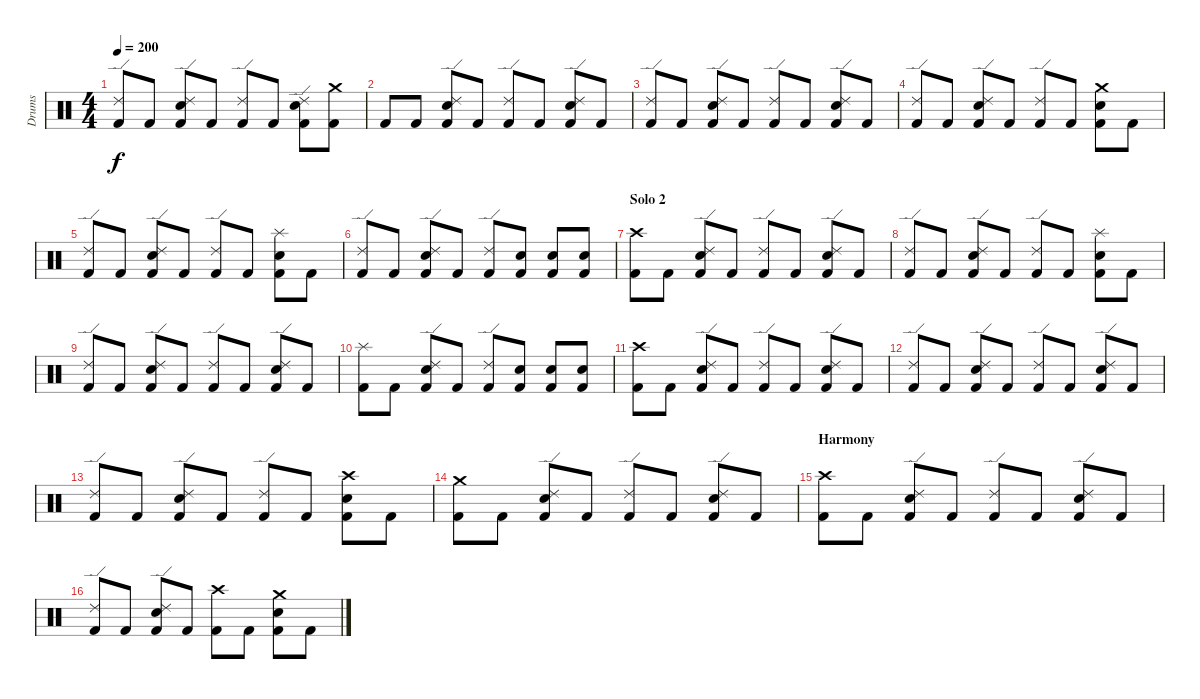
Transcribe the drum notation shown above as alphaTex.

\track ("Drums" "Drums") {instrument percussion}
\staff {score}
\articulation defaults
\ts (4 4)
\tempo 200
\clef neutral
\ks c
("Kick (hit) 2" "Ride (edge) 2").8{dy f} "Kick (hit) 2".8 ("Kick (hit) 2" "Electric Snare (hit)" "Ride (edge) 2").8 "Kick (hit) 2".8 ("Kick (hit) 2" "Ride (edge) 2").8 "Kick (hit) 2".8 ("Kick (hit) 2" "Electric Snare (hit)" "Ride (edge) 2").8 ("Kick (hit) 2" "Crash medium (hit)").8 |
"Kick (hit) 2".8 "Kick (hit) 2".8 ("Kick (hit) 2" "Electric Snare (hit)" "Ride (edge) 2").8 "Kick (hit) 2".8 ("Kick (hit) 2" "Ride (edge) 2").8 "Kick (hit) 2".8 ("Kick (hit) 2" "Electric Snare (hit)" "Ride (edge) 2").8 "Kick (hit) 2".8 |
("Kick (hit) 2" "Ride (edge) 2").8 "Kick (hit) 2".8 ("Kick (hit) 2" "Electric Snare (hit)" "Ride (edge) 2").8 "Kick (hit) 2".8 ("Kick (hit) 2" "Ride (edge) 2").8 "Kick (hit) 2".8 ("Kick (hit) 2" "Electric Snare (hit)" "Ride (edge) 2").8 "Kick (hit) 2".8 |
("Kick (hit) 2" "Ride (edge) 2").8 "Kick (hit) 2".8 ("Kick (hit) 2" "Electric Snare (hit)" "Ride (edge) 2").8 "Kick (hit) 2".8 ("Kick (hit) 2" "Ride (edge) 2").8 "Kick (hit) 2".8 ("Kick (hit) 2" "Electric Snare (hit)" "Crash medium (hit)").8 "Kick (hit) 2".8 |
("Kick (hit) 2" "Ride (edge) 2").8 "Kick (hit) 2".8 ("Kick (hit) 2" "Electric Snare (hit)" "Ride (edge) 2").8 "Kick (hit) 2".8 ("Kick (hit) 2" "Ride (edge) 2").8 "Kick (hit) 2".8 ("Kick (hit) 2" "Electric Snare (hit)" "Splash (hit)").8 "Kick (hit) 2".8 |
("Kick (hit) 2" "Ride (edge) 2").8 "Kick (hit) 2".8 ("Kick (hit) 2" "Electric Snare (hit)" "Ride (edge) 2").8 "Kick (hit) 2".8 ("Kick (hit) 2" "Ride (edge) 2").8 ("Kick (hit) 2" "Electric Snare (hit)").8 ("Kick (hit) 2" "Electric Snare (hit)").8 ("Kick (hit) 2" "Electric Snare (hit)").8 |
\section ("" "Solo 2")
("Kick (hit) 2" "Crash high (hit)").8 "Kick (hit) 2".8 ("Kick (hit) 2" "Electric Snare (hit)" "Ride (edge) 2").8 "Kick (hit) 2".8 ("Kick (hit) 2" "Ride (edge) 2").8 "Kick (hit) 2".8 ("Kick (hit) 2" "Electric Snare (hit)" "Ride (edge) 2").8 "Kick (hit) 2".8 |
("Kick (hit) 2" "Ride (edge) 2").8 "Kick (hit) 2".8 ("Kick (hit) 2" "Electric Snare (hit)" "Ride (edge) 2").8 "Kick (hit) 2".8 ("Kick (hit) 2" "Ride (edge) 2").8 "Kick (hit) 2".8 ("Kick (hit) 2" "Electric Snare (hit)" "Splash (hit)").8 "Kick (hit) 2".8 |
("Kick (hit) 2" "Ride (edge) 2").8 "Kick (hit) 2".8 ("Kick (hit) 2" "Electric Snare (hit)" "Ride (edge) 2").8 "Kick (hit) 2".8 ("Kick (hit) 2" "Ride (edge) 2").8 "Kick (hit) 2".8 ("Kick (hit) 2" "Electric Snare (hit)" "Ride (edge) 2").8 "Kick (hit) 2".8 |
("Kick (hit) 2" "Splash (hit)").8 "Kick (hit) 2".8 ("Kick (hit) 2" "Electric Snare (hit)" "Ride (edge) 2").8 "Kick (hit) 2".8 ("Kick (hit) 2" "Ride (edge) 2").8 ("Kick (hit) 2" "Electric Snare (hit)").8 ("Kick (hit) 2" "Electric Snare (hit)").8 ("Kick (hit) 2" "Electric Snare (hit)").8 |
("Kick (hit) 2" "Crash high (hit)").8 "Kick (hit) 2".8 ("Kick (hit) 2" "Electric Snare (hit)" "Ride (edge) 2").8 "Kick (hit) 2".8 ("Kick (hit) 2" "Ride (edge) 2").8 "Kick (hit) 2".8 ("Kick (hit) 2" "Electric Snare (hit)" "Ride (edge) 2").8 "Kick (hit) 2".8 |
("Kick (hit) 2" "Ride (edge) 2").8 "Kick (hit) 2".8 ("Kick (hit) 2" "Electric Snare (hit)" "Ride (edge) 2").8 "Kick (hit) 2".8 ("Kick (hit) 2" "Ride (edge) 2").8 "Kick (hit) 2".8 ("Kick (hit) 2" "Electric Snare (hit)" "Ride (edge) 2").8 "Kick (hit) 2".8 |
("Kick (hit) 2" "Ride (edge) 2").8 "Kick (hit) 2".8 ("Kick (hit) 2" "Electric Snare (hit)" "Ride (edge) 2").8 "Kick (hit) 2".8 ("Kick (hit) 2" "Ride (edge) 2").8 "Kick (hit) 2".8 ("Kick (hit) 2" "Electric Snare (hit)" "Crash high (hit)").8 "Kick (hit) 2".8 |
("Kick (hit) 2" "Crash medium (hit)").8 "Kick (hit) 2".8 ("Kick (hit) 2" "Electric Snare (hit)" "Ride (edge) 2").8 "Kick (hit) 2".8 ("Kick (hit) 2" "Ride (edge) 2").8 "Kick (hit) 2".8 ("Kick (hit) 2" "Electric Snare (hit)" "Ride (edge) 2").8 "Kick (hit) 2".8 |
\section ("" "Harmony")
("Kick (hit) 2" "Crash high (hit)").8 "Kick (hit) 2".8 ("Kick (hit) 2" "Electric Snare (hit)" "Ride (edge) 2").8 "Kick (hit) 2".8 ("Kick (hit) 2" "Ride (edge) 2").8 "Kick (hit) 2".8 ("Kick (hit) 2" "Electric Snare (hit)" "Ride (edge) 2").8 "Kick (hit) 2".8 |
("Kick (hit) 2" "Ride (edge) 2").8 "Kick (hit) 2".8 ("Kick (hit) 2" "Electric Snare (hit)" "Ride (edge) 2").8 "Kick (hit) 2".8 ("Kick (hit) 2" "Crash high (hit)").8 "Kick (hit) 2".8 ("Kick (hit) 2" "Electric Snare (hit)" "Crash medium (hit)").8 "Kick (hit) 2".8
